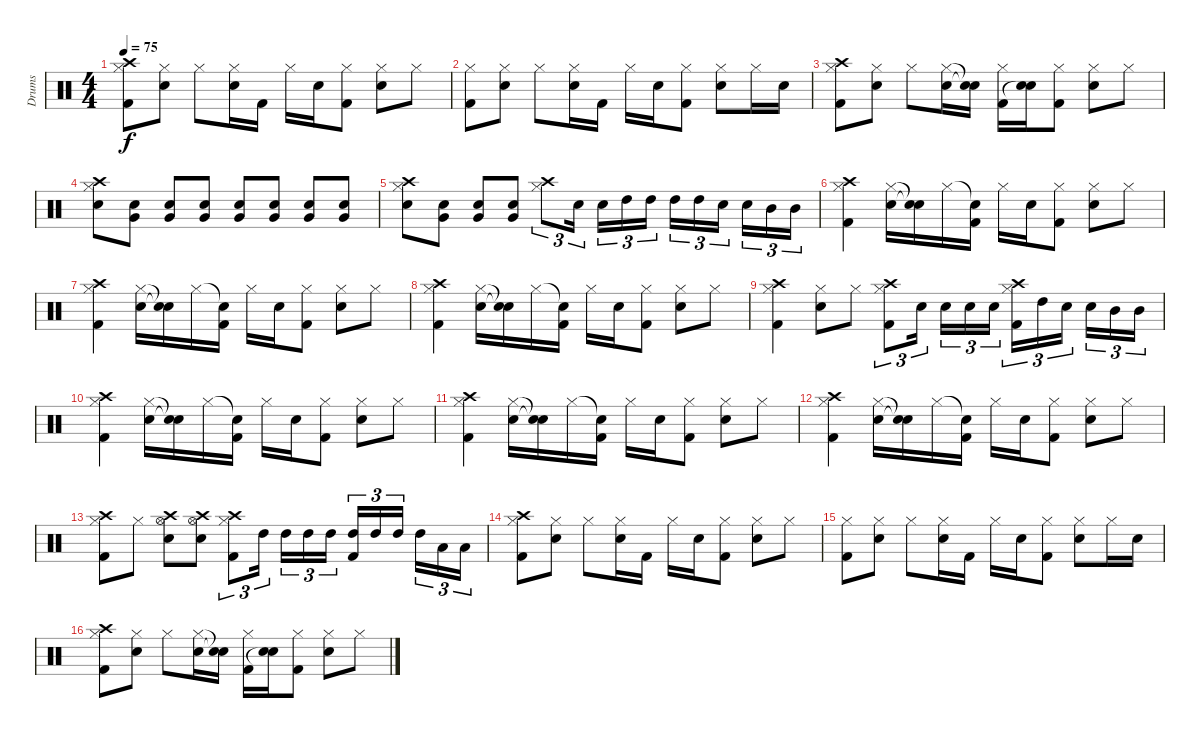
\track ("Drums" "Drums") {instrument percussion}
\staff {score}
\articulation defaults
\ts (4 4)
\tempo 75
\clef neutral
\ks c
("Crash high (hit)" "Hi-Hat (closed)" "Kick (hit) 2").8{dy f} ("Hi-Hat (closed)" "Electric Snare (hit)").8 "Hi-Hat (closed)".8 ("Hi-Hat (closed)" "Electric Snare (hit)").16 "Kick (hit) 2".16 "Hi-Hat (closed)".16 "Electric Snare (hit)".16 ("Hi-Hat (closed)" "Kick (hit) 2").8 ("Hi-Hat (closed)" "Electric Snare (hit)").8 "Hi-Hat (closed)".8 |
("Hi-Hat (closed)" "Kick (hit) 2").8 ("Hi-Hat (closed)" "Electric Snare (hit)").8 "Hi-Hat (closed)".8 ("Hi-Hat (closed)" "Electric Snare (hit)").16 "Kick (hit) 2".16 "Hi-Hat (closed)".16 "Electric Snare (hit)".16 ("Hi-Hat (closed)" "Kick (hit) 2").8 ("Hi-Hat (closed)" "Electric Snare (hit)").8 "Hi-Hat (closed)".16 "Electric Snare (hit)".16 |
("Crash high (hit)" "Hi-Hat (closed)" "Kick (hit) 2").8 ("Hi-Hat (closed)" "Electric Snare (hit)").8 "Hi-Hat (closed)".8 ("Hi-Hat (closed)" "Electric Snare (hit)").16 ("Snare (hit)"{t} "Snare (hit)"{t}).16 ("Hi-Hat (closed)" "Kick (hit) 2").16 ("Electric Snare (hit)" "Snare (hit)"{t}).16 ("Hi-Hat (closed)" "Kick (hit) 2").8 ("Hi-Hat (closed)" "Electric Snare (hit)").8 "Hi-Hat (closed)".8 |
("Crash high (hit)" "Electric Snare (hit)" "Hi-Hat (closed)").8 ("Electric Snare (hit)" "Very Low Tom (hit)").8 ("Electric Snare (hit)" "Very Low Tom (hit)").8 ("Electric Snare (hit)" "Very Low Tom (hit)").8 ("Electric Snare (hit)" "Very Low Tom (hit)").8 ("Electric Snare (hit)" "Very Low Tom (hit)").8 ("Electric Snare (hit)" "Very Low Tom (hit)").8 ("Electric Snare (hit)" "Very Low Tom (hit)").8 |
("Crash high (hit)" "Electric Snare (hit)" "Hi-Hat (closed)").8 ("Electric Snare (hit)" "Very Low Tom (hit)").8 ("Electric Snare (hit)" "Very Low Tom (hit)").8 ("Electric Snare (hit)" "Very Low Tom (hit)").8 ("Crash high (hit)" "Hi-Hat (closed)").8{tu (3 2)} "Electric Snare (hit)".16{tu (3 2)} "Electric Snare (hit)".16{tu (3 2)} "High Tom (hit)".16{tu (3 2)} "High Tom (hit)".16{tu (3 2)} "High Tom (hit)".16{tu (3 2)} "High Tom (hit)".16{tu (3 2)} "Electric Snare (hit)".16{tu (3 2)} "Electric Snare (hit)".16{tu (3 2)} "Mid Tom (hit)".16{tu (3 2)} "Mid Tom (hit)".16{tu (3 2)} |
("Hi-Hat (closed)" "Kick (hit) 2" "Crash high (hit)").4 ("Hi-Hat (closed)" "Electric Snare (hit)").16 ("Snare (hit)"{t} "Snare (hit)"{t}).16 "Hi-Hat (closed)".16 ("Snare (hit)"{t} "Kick (hit) 2").16 "Hi-Hat (closed)".16 "Electric Snare (hit)".16 ("Hi-Hat (closed)" "Kick (hit) 2").8 ("Electric Snare (hit)" "Hi-Hat (closed)").8 "Hi-Hat (closed)".8 |
("Hi-Hat (closed)" "Kick (hit) 2" "Crash high (hit)").4 ("Hi-Hat (closed)" "Electric Snare (hit)").16 ("Snare (hit)"{t} "Snare (hit)"{t}).16 "Hi-Hat (closed)".16 ("Snare (hit)"{t} "Kick (hit) 2").16 "Hi-Hat (closed)".16 "Electric Snare (hit)".16 ("Hi-Hat (closed)" "Kick (hit) 2").8 ("Electric Snare (hit)" "Hi-Hat (closed)").8 "Hi-Hat (closed)".8 |
("Hi-Hat (closed)" "Kick (hit) 2" "Crash high (hit)").4 ("Hi-Hat (closed)" "Electric Snare (hit)").16 ("Snare (hit)"{t} "Snare (hit)"{t}).16 "Hi-Hat (closed)".16 ("Snare (hit)"{t} "Kick (hit) 2").16 "Hi-Hat (closed)".16 "Electric Snare (hit)".16 ("Hi-Hat (closed)" "Kick (hit) 2").8 ("Electric Snare (hit)" "Hi-Hat (closed)").8 "Hi-Hat (closed)".8 |
("Kick (hit) 2" "Crash high (hit)" "Hi-Hat (closed)").4 ("Electric Snare (hit)" "Hi-Hat (closed)").8 "Hi-Hat (closed)".8 ("Kick (hit) 2" "Crash high (hit)" "Hi-Hat (closed)").8{tu (3 2)} "Electric Snare (hit)".16{tu (3 2)} "Electric Snare (hit)".16{tu (3 2)} "Electric Snare (hit)".16{tu (3 2)} "Electric Snare (hit)".16{tu (3 2)} ("Kick (hit) 2" "Crash high (hit)" "Hi-Hat (closed)").16{tu (3 2)} "High Tom (hit)".16{tu (3 2)} "Electric Snare (hit)".16{tu (3 2)} "Electric Snare (hit)".16{tu (3 2)} "Mid Tom (hit)".16{tu (3 2)} "Mid Tom (hit)".16{tu (3 2)} |
("Hi-Hat (closed)" "Kick (hit) 2" "Crash high (hit)").4 ("Hi-Hat (closed)" "Electric Snare (hit)").16 ("Snare (hit)"{t} "Snare (hit)"{t}).16 "Hi-Hat (closed)".16 ("Snare (hit)"{t} "Kick (hit) 2").16 "Hi-Hat (closed)".16 "Electric Snare (hit)".16 ("Hi-Hat (closed)" "Kick (hit) 2").8 ("Electric Snare (hit)" "Hi-Hat (closed)").8 "Hi-Hat (closed)".8 |
("Hi-Hat (closed)" "Kick (hit) 2" "Crash high (hit)").4 ("Hi-Hat (closed)" "Electric Snare (hit)").16 ("Snare (hit)"{t} "Snare (hit)"{t}).16 "Hi-Hat (closed)".16 ("Snare (hit)"{t} "Kick (hit) 2").16 "Hi-Hat (closed)".16 "Electric Snare (hit)".16 ("Hi-Hat (closed)" "Kick (hit) 2").8 ("Electric Snare (hit)" "Hi-Hat (closed)").8 "Hi-Hat (closed)".8 |
("Hi-Hat (closed)" "Kick (hit) 2" "Crash high (hit)").4 ("Hi-Hat (closed)" "Electric Snare (hit)").16 ("Snare (hit)"{t} "Snare (hit)"{t}).16 "Hi-Hat (closed)".16 ("Snare (hit)"{t} "Kick (hit) 2").16 "Hi-Hat (closed)".16 "Electric Snare (hit)".16 ("Hi-Hat (closed)" "Kick (hit) 2").8 ("Electric Snare (hit)" "Hi-Hat (closed)").8 "Hi-Hat (closed)".8 |
("Crash high (hit)" "Kick (hit) 2" "Hi-Hat (closed)").8 "Hi-Hat (closed)".8 ("Crash high (hit)" "Hi-Hat (open)" "Electric Snare (hit)").8 ("Crash high (hit)" "Hi-Hat (open)" "Electric Snare (hit)").8 ("Crash high (hit)" "Kick (hit) 2" "Hi-Hat (closed)").8{tu (3 2)} "High Tom (hit)".16{tu (3 2)} "High Tom (hit)".16{tu (3 2)} "High Tom (hit)".16{tu (3 2)} "High Tom (hit)".16{tu (3 2)} ("High Tom (hit)" "Kick (hit) 2").16{tu (3 2)} "High Tom (hit)".16{tu (3 2)} "High Tom (hit)".16{tu (3 2)} "High Tom (hit)".16{tu (3 2)} "Low Tom (hit)".16{tu (3 2)} "Low Tom (hit)".16{tu (3 2)} |
("Crash high (hit)" "Hi-Hat (closed)" "Kick (hit) 2").8 ("Hi-Hat (closed)" "Electric Snare (hit)").8 "Hi-Hat (closed)".8 ("Hi-Hat (closed)" "Electric Snare (hit)").16 "Kick (hit) 2".16 "Hi-Hat (closed)".16 "Electric Snare (hit)".16 ("Hi-Hat (closed)" "Kick (hit) 2").8 ("Hi-Hat (closed)" "Electric Snare (hit)").8 "Hi-Hat (closed)".8 |
("Hi-Hat (closed)" "Kick (hit) 2").8 ("Hi-Hat (closed)" "Electric Snare (hit)").8 "Hi-Hat (closed)".8 ("Hi-Hat (closed)" "Electric Snare (hit)").16 "Kick (hit) 2".16 "Hi-Hat (closed)".16 "Electric Snare (hit)".16 ("Hi-Hat (closed)" "Kick (hit) 2").8 ("Hi-Hat (closed)" "Electric Snare (hit)").8 "Hi-Hat (closed)".16 "Electric Snare (hit)".16 |
("Crash high (hit)" "Hi-Hat (closed)" "Kick (hit) 2").8 ("Hi-Hat (closed)" "Electric Snare (hit)").8 "Hi-Hat (closed)".8 ("Hi-Hat (closed)" "Electric Snare (hit)").16 ("Snare (hit)"{t} "Snare (hit)"{t}).16 ("Hi-Hat (closed)" "Kick (hit) 2").16 ("Electric Snare (hit)" "Snare (hit)"{t}).16 ("Hi-Hat (closed)" "Kick (hit) 2").8 ("Hi-Hat (closed)" "Electric Snare (hit)").8 "Hi-Hat (closed)".8
